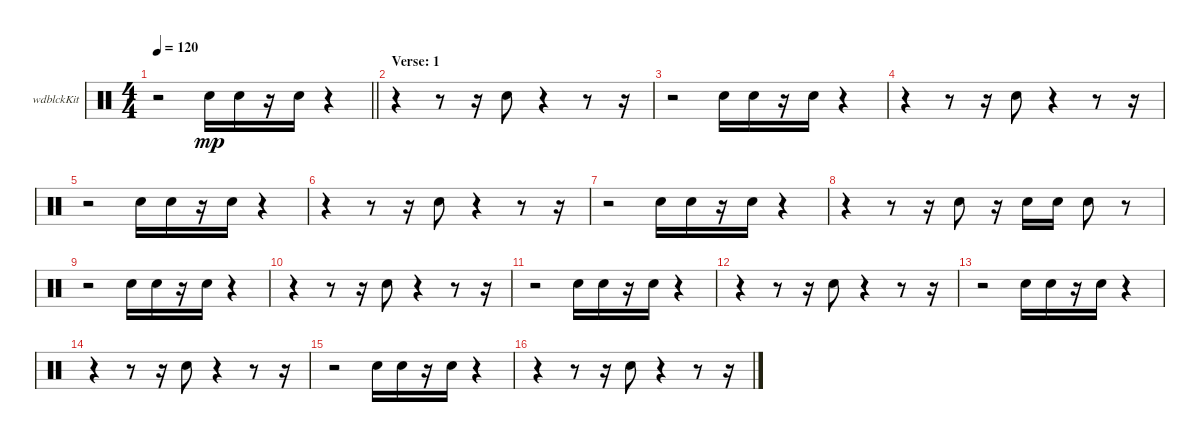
\bracketExtendMode groupsimilarinstruments
\firstSystemTrackNameOrientation horizontal
\otherSystemsTrackNameOrientation horizontal
\track ("Woodblock" "wdblckKit") {instrument percussion}
\staff {score}
\articulation defaults
\ts (4 4)
\tempo 120
\clef neutral
\barLineRight lightlight
\ks c
r.2{dy mp} "Snare (hit) 2".16 "Snare (hit) 2".16 r.16 "Snare (hit) 2".16 r.4 |
\section ("" "Verse: 1")
r.4 r.8 r.16 "Snare (hit) 2".8 r.4 r.8 r.16 |
r.2 "Snare (hit) 2".16 "Snare (hit) 2".16 r.16 "Snare (hit) 2".16 r.4 |
r.4 r.8 r.16 "Snare (hit) 2".8 r.4 r.8 r.16 |
r.2 "Snare (hit) 2".16 "Snare (hit) 2".16 r.16 "Snare (hit) 2".16 r.4 |
r.4 r.8 r.16 "Snare (hit) 2".8 r.4 r.8 r.16 |
r.2 "Snare (hit) 2".16 "Snare (hit) 2".16 r.16 "Snare (hit) 2".16 r.4 |
r.4 r.8 r.16 "Snare (hit) 2".8 r.16 "Snare (hit) 2".16 "Snare (hit) 2".16 "Snare (hit) 2".8 r.8 |
r.2 "Snare (hit) 2".16 "Snare (hit) 2".16 r.16 "Snare (hit) 2".16 r.4 |
r.4 r.8 r.16 "Snare (hit) 2".8 r.4 r.8 r.16 |
r.2 "Snare (hit) 2".16 "Snare (hit) 2".16 r.16 "Snare (hit) 2".16 r.4 |
r.4 r.8 r.16 "Snare (hit) 2".8 r.4 r.8 r.16 |
r.2 "Snare (hit) 2".16 "Snare (hit) 2".16 r.16 "Snare (hit) 2".16 r.4 |
r.4 r.8 r.16 "Snare (hit) 2".8 r.4 r.8 r.16 |
r.2 "Snare (hit) 2".16 "Snare (hit) 2".16 r.16 "Snare (hit) 2".16 r.4 |
r.4 r.8 r.16 "Snare (hit) 2".8 r.4 r.8 r.16
